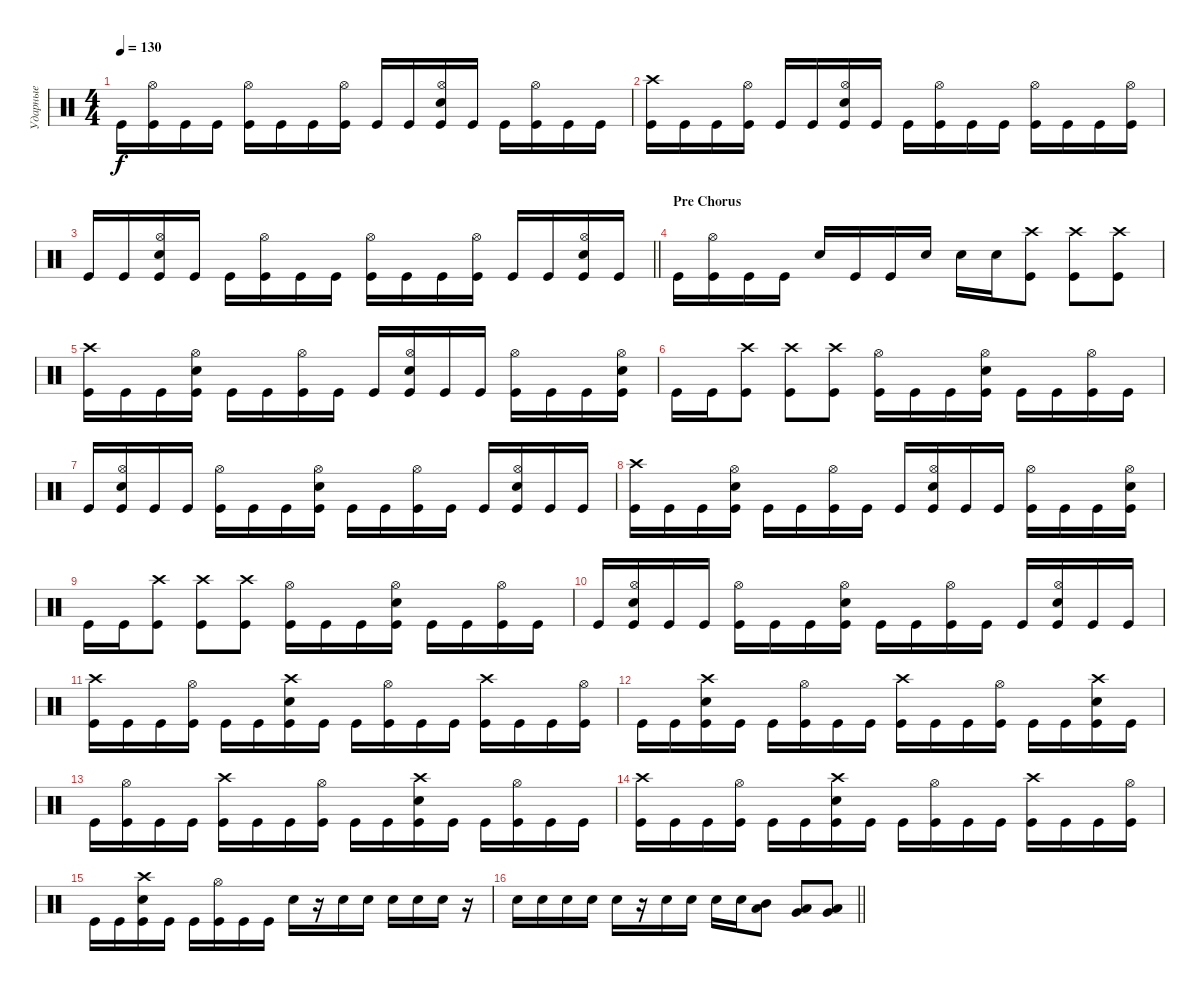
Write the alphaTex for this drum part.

\track ("Ударные" "Ударные") {instrument percussion}
\staff {score}
\articulation defaults
\ts (4 4)
\tempo 130
\clef neutral
\ks c "Kick (hit)".16{dy f}
("Hi-Hat (open)" "Kick (hit)").16 "Kick (hit)".16 "Kick (hit)".16 ("Hi-Hat (open)" "Kick (hit)").16 "Kick (hit)".16 "Kick (hit)".16 ("Hi-Hat (open)" "Kick (hit)").16 "Kick (hit)".16 "Kick (hit)".16 ("Snare (hit) 2" "Hi-Hat (open)" "Kick (hit)").16 "Kick (hit)".16 "Kick (hit)".16 ("Hi-Hat (open)" "Kick (hit)").16 "Kick (hit)".16 "Kick (hit)".16 |
("Crash high (hit)" "Kick (hit)").16 "Kick (hit)".16 "Kick (hit)".16 ("Hi-Hat (open)" "Kick (hit)").16 "Kick (hit)".16 "Kick (hit)".16 ("Hi-Hat (open)" "Snare (hit) 2" "Kick (hit)").16 "Kick (hit)".16 "Kick (hit)".16 ("Hi-Hat (open)" "Kick (hit)").16 "Kick (hit)".16 "Kick (hit)".16 ("Hi-Hat (open)" "Kick (hit)").16 "Kick (hit)".16 "Kick (hit)".16 ("Hi-Hat (open)" "Kick (hit)").16 |
\barLineRight lightlight "Kick (hit)".16 "Kick (hit)".16
("Hi-Hat (open)" "Snare (hit) 2" "Kick (hit)").16 "Kick (hit)".16 "Kick (hit)".16 ("Hi-Hat (open)" "Kick (hit)").16 "Kick (hit)".16 "Kick (hit)".16 ("Hi-Hat (open)" "Kick (hit)").16 "Kick (hit)".16 "Kick (hit)".16 ("Hi-Hat (open)" "Kick (hit)").16 "Kick (hit)".16 "Kick (hit)".16 ("Hi-Hat (open)" "Snare (hit) 2" "Kick (hit)").16 "Kick (hit)".16 |
\section ("" "Pre Chorus")
"Kick (hit)".16 ("Hi-Hat (open)" "Kick (hit)").16 "Kick (hit)".16 "Kick (hit)".16 "Snare (hit) 2".16 "Kick (hit)".16 "Kick (hit)".16 "Snare (hit) 2".16 "Snare (hit) 2".16 "Snare (hit) 2".16 ("Crash high (hit)" "Kick (hit)").8 ("Crash high (hit)" "Kick (hit)").8 ("Crash high (hit)" "Kick (hit)").8 |
("Crash high (hit)" "Kick (hit)").16 "Kick (hit)".16 "Kick (hit)".16 ("Hi-Hat (open)" "Snare (hit) 2" "Kick (hit)").16 "Kick (hit)".16 "Kick (hit)".16 ("Hi-Hat (open)" "Kick (hit)").16 "Kick (hit)".16 "Kick (hit)".16 ("Snare (hit) 2" "Hi-Hat (open)" "Kick (hit)").16 "Kick (hit)".16 "Kick (hit)".16 ("Hi-Hat (open)" "Kick (hit)").16 "Kick (hit)".16 "Kick (hit)".16 ("Snare (hit) 2" "Hi-Hat (open)" "Kick (hit)").16 |
"Kick (hit)".16 "Kick (hit)".16 ("Crash high (hit)" "Kick (hit)").8 ("Crash high (hit)" "Kick (hit)").8 ("Crash high (hit)" "Kick (hit)").8 ("Hi-Hat (open)" "Kick (hit)").16 "Kick (hit)".16 "Kick (hit)".16 ("Hi-Hat (open)" "Snare (hit) 2" "Kick (hit)").16 "Kick (hit)".16 "Kick (hit)".16 ("Hi-Hat (open)" "Kick (hit)").16 "Kick (hit)".16 |
"Kick (hit)".16 ("Snare (hit) 2" "Hi-Hat (open)" "Kick (hit)").16 "Kick (hit)".16 "Kick (hit)".16 ("Hi-Hat (open)" "Kick (hit)").16 "Kick (hit)".16 "Kick (hit)".16 ("Snare (hit) 2" "Hi-Hat (open)" "Kick (hit)").16 "Kick (hit)".16 "Kick (hit)".16 ("Hi-Hat (open)" "Kick (hit)").16 "Kick (hit)".16 "Kick (hit)".16 ("Snare (hit) 2" "Hi-Hat (open)" "Kick (hit)").16 "Kick (hit)".16 "Kick (hit)".16 |
("Crash high (hit)" "Kick (hit)").16 "Kick (hit)".16 "Kick (hit)".16 ("Hi-Hat (open)" "Snare (hit) 2" "Kick (hit)").16 "Kick (hit)".16 "Kick (hit)".16 ("Hi-Hat (open)" "Kick (hit)").16 "Kick (hit)".16 "Kick (hit)".16 ("Snare (hit) 2" "Hi-Hat (open)" "Kick (hit)").16 "Kick (hit)".16 "Kick (hit)".16 ("Hi-Hat (open)" "Kick (hit)").16 "Kick (hit)".16 "Kick (hit)".16 ("Snare (hit) 2" "Hi-Hat (open)" "Kick (hit)").16 |
"Kick (hit)".16 "Kick (hit)".16 ("Crash high (hit)" "Kick (hit)").8 ("Crash high (hit)" "Kick (hit)").8 ("Crash high (hit)" "Kick (hit)").8 ("Hi-Hat (open)" "Kick (hit)").16 "Kick (hit)".16 "Kick (hit)".16 ("Hi-Hat (open)" "Snare (hit) 2" "Kick (hit)").16 "Kick (hit)".16 "Kick (hit)".16 ("Hi-Hat (open)" "Kick (hit)").16 "Kick (hit)".16 |
"Kick (hit)".16 ("Snare (hit) 2" "Hi-Hat (open)" "Kick (hit)").16 "Kick (hit)".16 "Kick (hit)".16 ("Hi-Hat (open)" "Kick (hit)").16 "Kick (hit)".16 "Kick (hit)".16 ("Snare (hit) 2" "Hi-Hat (open)" "Kick (hit)").16 "Kick (hit)".16 "Kick (hit)".16 ("Hi-Hat (open)" "Kick (hit)").16 "Kick (hit)".16 "Kick (hit)".16 ("Snare (hit) 2" "Hi-Hat (open)" "Kick (hit)").16 "Kick (hit)".16 "Kick (hit)".16 |
("Crash high (hit)" "Kick (hit)").16 "Kick (hit)".16 "Kick (hit)".16 ("Hi-Hat (open)" "Kick (hit)").16 "Kick (hit)".16 "Kick (hit)".16 ("Crash high (hit)" "Snare (hit) 2" "Kick (hit)").16 "Kick (hit)".16 "Kick (hit)".16 ("Hi-Hat (open)" "Kick (hit)").16 "Kick (hit)".16 "Kick (hit)".16 ("Crash high (hit)" "Kick (hit)").16 "Kick (hit)".16 "Kick (hit)".16 ("Hi-Hat (open)" "Kick (hit)").16 |
"Kick (hit)".16 "Kick (hit)".16 ("Crash high (hit)" "Snare (hit) 2" "Kick (hit)").16 "Kick (hit)".16 "Kick (hit)".16 ("Hi-Hat (open)" "Kick (hit)").16 "Kick (hit)".16 "Kick (hit)".16 ("Crash high (hit)" "Kick (hit)").16 "Kick (hit)".16 "Kick (hit)".16 ("Hi-Hat (open)" "Kick (hit)").16 "Kick (hit)".16 "Kick (hit)".16 ("Crash high (hit)" "Snare (hit) 2" "Kick (hit)").16 "Kick (hit)".16 |
"Kick (hit)".16 ("Hi-Hat (open)" "Kick (hit)").16 "Kick (hit)".16 "Kick (hit)".16 ("Crash high (hit)" "Kick (hit)").16 "Kick (hit)".16 "Kick (hit)".16 ("Hi-Hat (open)" "Kick (hit)").16 "Kick (hit)".16 "Kick (hit)".16 ("Snare (hit) 2" "Crash high (hit)" "Kick (hit)").16 "Kick (hit)".16 "Kick (hit)".16 ("Hi-Hat (open)" "Kick (hit)").16 "Kick (hit)".16 "Kick (hit)".16 |
("Crash high (hit)" "Kick (hit)").16 "Kick (hit)".16 "Kick (hit)".16 ("Hi-Hat (open)" "Kick (hit)").16 "Kick (hit)".16 "Kick (hit)".16 ("Crash high (hit)" "Snare (hit) 2" "Kick (hit)").16 "Kick (hit)".16 "Kick (hit)".16 ("Hi-Hat (open)" "Kick (hit)").16 "Kick (hit)".16 "Kick (hit)".16 ("Crash high (hit)" "Kick (hit)").16 "Kick (hit)".16 "Kick (hit)".16 ("Hi-Hat (open)" "Kick (hit)").16 |
"Kick (hit)".16 "Kick (hit)".16 ("Crash high (hit)" "Snare (hit) 2" "Kick (hit)").16 "Kick (hit)".16 "Kick (hit)".16 ("Hi-Hat (open)" "Kick (hit)").16 "Kick (hit)".16 "Kick (hit)".16 "Snare (hit) 2".16 r.16 "Snare (hit) 2".16 "Snare (hit) 2".16 "Snare (hit) 2".16 "Snare (hit) 2".16 "Snare (hit) 2".16 r.16 |
\barLineRight lightlight "Snare (hit) 2".16 "Snare (hit) 2".16 "Snare (hit) 2".16 "Snare (hit) 2".16 "Snare (hit) 2".16
r.16 "Snare (hit) 2".16 "Snare (hit) 2".16 "Snare (hit) 2".16 "Snare (hit) 2".16 ("Mid Tom (hit)" "Low Tom (hit)").8 ("Low Tom (hit)" "Very Low Tom (hit)").8 ("Very Low Tom (hit)" "Low Floor Tom (hit)").8
